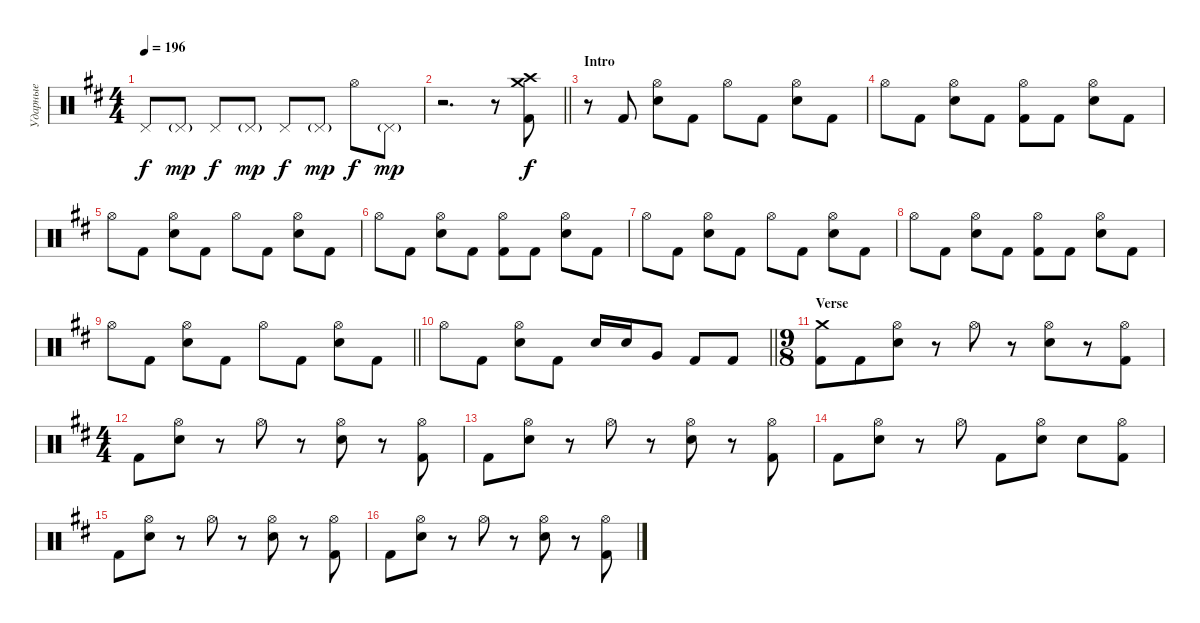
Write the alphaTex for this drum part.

\track ("Ударные" "Ударные") {instrument percussion}
\staff {score}
\articulation defaults
\ts (4 4)
\tempo 196
\clef neutral
\ks d "Pedal Hi-Hat (hit)".8{dy f} "Pedal Hi-Hat (hit)"{g}.8{dy mp} "Pedal Hi-Hat (hit)".8{dy f} "Pedal Hi-Hat (hit)"{g}.8{dy mp} "Pedal Hi-Hat (hit)".8{dy f} "Pedal Hi-Hat (hit)"{g}.8{dy mp} "Hi-Hat (open)".8{dy f} "Pedal Hi-Hat (hit)"{g}.8{dy mp}
|
\barLineRight lightlight
r.2{d} r.8 ("Crash medium (hit)" "Crash high (hit)" "Kick (hit) 2").8{dy f} |
\section ("" "Intro")
r.8 "Kick (hit) 2".8 ("Hi-Hat (open)" "Electric Snare (hit)").8 "Kick (hit) 2".8 "Hi-Hat (open)".8 "Kick (hit) 2".8 ("Hi-Hat (open)" "Electric Snare (hit)").8 "Kick (hit) 2".8 |
"Hi-Hat (open)".8 "Kick (hit) 2".8 ("Hi-Hat (open)" "Electric Snare (hit)").8 "Kick (hit) 2".8 ("Hi-Hat (open)" "Kick (hit) 2").8 "Kick (hit) 2".8 ("Hi-Hat (open)" "Electric Snare (hit)").8 "Kick (hit) 2".8 |
"Hi-Hat (open)".8 "Kick (hit) 2".8 ("Hi-Hat (open)" "Electric Snare (hit)").8 "Kick (hit) 2".8 "Hi-Hat (open)".8 "Kick (hit) 2".8 ("Hi-Hat (open)" "Electric Snare (hit)").8 "Kick (hit) 2".8 |
"Hi-Hat (open)".8 "Kick (hit) 2".8 ("Hi-Hat (open)" "Electric Snare (hit)").8 "Kick (hit) 2".8 ("Hi-Hat (open)" "Kick (hit) 2").8 "Kick (hit) 2".8 ("Hi-Hat (open)" "Electric Snare (hit)").8 "Kick (hit) 2".8 |
"Hi-Hat (open)".8 "Kick (hit) 2".8 ("Hi-Hat (open)" "Electric Snare (hit)").8 "Kick (hit) 2".8 "Hi-Hat (open)".8 "Kick (hit) 2".8 ("Hi-Hat (open)" "Electric Snare (hit)").8 "Kick (hit) 2".8 |
"Hi-Hat (open)".8 "Kick (hit) 2".8 ("Hi-Hat (open)" "Electric Snare (hit)").8 "Kick (hit) 2".8 ("Hi-Hat (open)" "Kick (hit) 2").8 "Kick (hit) 2".8 ("Hi-Hat (open)" "Electric Snare (hit)").8 "Kick (hit) 2".8 |
\barLineRight lightlight "Hi-Hat (open)".8 "Kick (hit) 2".8
("Hi-Hat (open)" "Electric Snare (hit)").8 "Kick (hit) 2".8 "Hi-Hat (open)".8 "Kick (hit) 2".8 ("Hi-Hat (open)" "Electric Snare (hit)").8 "Kick (hit) 2".8 |
\barLineRight lightlight "Hi-Hat (open)".8 "Kick (hit) 2".8
("Hi-Hat (open)" "Electric Snare (hit)").8 "Kick (hit) 2".8 "Electric Snare (hit)".16 "Electric Snare (hit)".16 "Very Low Tom (hit)".8 "Kick (hit) 2".8 "Kick (hit) 2".8 |
\ts (9 8)
\section ("" "Verse")
("Crash medium (hit)" "Kick (hit) 2").8 "Kick (hit) 2".8 ("Hi-Hat (open)" "Electric Snare (hit)").8 r.8 "Hi-Hat (open)".8 r.8 ("Hi-Hat (open)" "Electric Snare (hit)").8 r.8 ("Hi-Hat (open)" "Kick (hit) 2").8 |
\ts (4 4)
"Kick (hit) 2".8 ("Hi-Hat (open)" "Electric Snare (hit)").8 r.8 "Hi-Hat (open)".8 r.8 ("Hi-Hat (open)" "Electric Snare (hit)").8 r.8 ("Hi-Hat (open)" "Kick (hit) 2").8 |
"Kick (hit) 2".8 ("Hi-Hat (open)" "Electric Snare (hit)").8 r.8 "Hi-Hat (open)".8 r.8 ("Hi-Hat (open)" "Electric Snare (hit)").8 r.8 ("Hi-Hat (open)" "Kick (hit) 2").8 |
"Kick (hit) 2".8 ("Hi-Hat (open)" "Electric Snare (hit)").8 r.8 "Hi-Hat (open)".8 "Kick (hit) 2".8 ("Hi-Hat (open)" "Electric Snare (hit)").8 "Electric Snare (hit)".8 ("Hi-Hat (open)" "Kick (hit) 2").8 |
"Kick (hit) 2".8 ("Hi-Hat (open)" "Electric Snare (hit)").8 r.8 "Hi-Hat (open)".8 r.8 ("Hi-Hat (open)" "Electric Snare (hit)").8 r.8 ("Hi-Hat (open)" "Kick (hit) 2").8 |
"Kick (hit) 2".8 ("Hi-Hat (open)" "Electric Snare (hit)").8 r.8 "Hi-Hat (open)".8 r.8 ("Hi-Hat (open)" "Electric Snare (hit)").8 r.8 ("Hi-Hat (open)" "Kick (hit) 2").8
